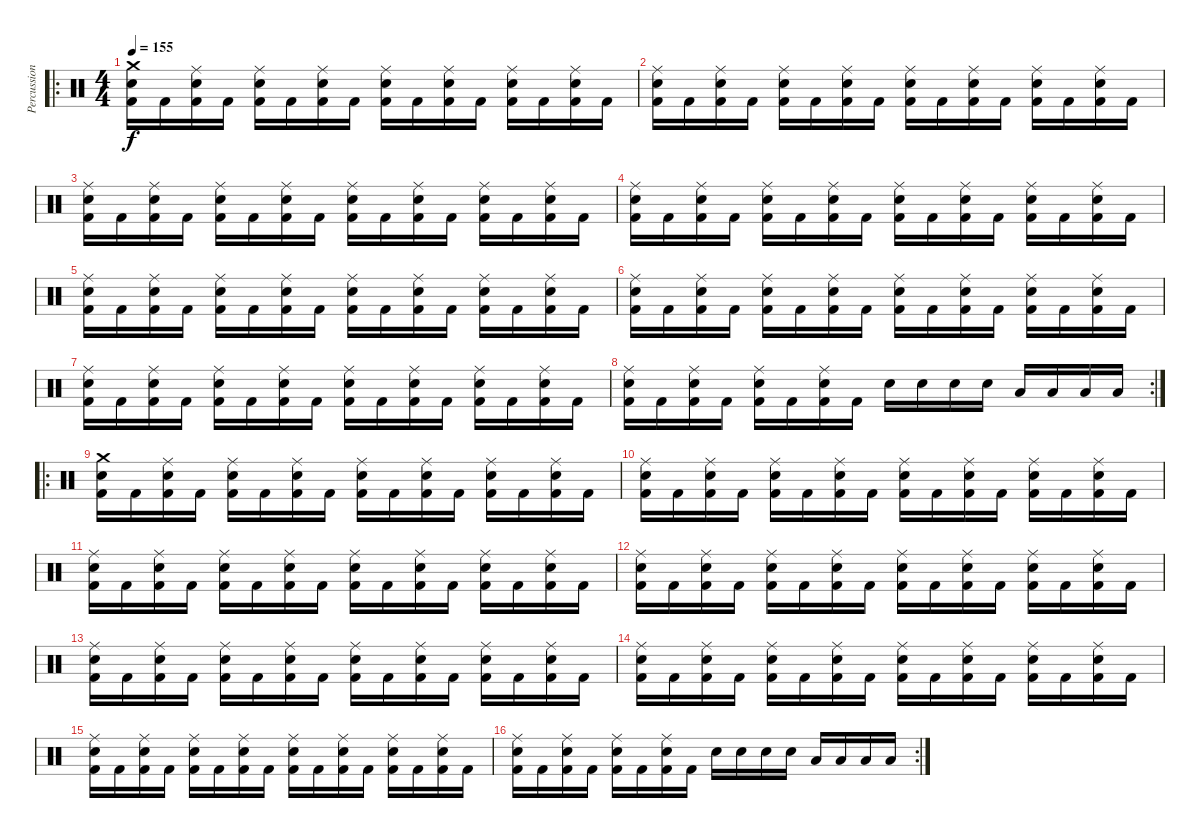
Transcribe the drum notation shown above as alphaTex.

\track ("Percussions" "Percussion") {instrument percussion}
\staff {score}
\articulation defaults
\ro
\ts (4 4)
\tempo 155
\clef neutral
\ks c
("Crash medium (hit)" "Snare (hit) 2" "Kick (hit) 2").16{dy f} "Kick (hit) 2".16 ("Ride (middle)" "Snare (hit) 2" "Kick (hit) 2").16 "Kick (hit) 2".16 ("Ride (middle)" "Snare (hit) 2" "Kick (hit) 2").16 "Kick (hit) 2".16 ("Ride (middle)" "Snare (hit) 2" "Kick (hit) 2").16 "Kick (hit) 2".16 ("Ride (middle)" "Snare (hit) 2" "Kick (hit) 2").16 "Kick (hit) 2".16 ("Ride (middle)" "Snare (hit) 2" "Kick (hit) 2").16 "Kick (hit) 2".16 ("Ride (middle)" "Snare (hit) 2" "Kick (hit) 2").16 "Kick (hit) 2".16 ("Ride (middle)" "Snare (hit) 2" "Kick (hit) 2").16 "Kick (hit) 2".16 |
("Ride (middle)" "Snare (hit) 2" "Kick (hit) 2").16 "Kick (hit) 2".16 ("Ride (middle)" "Snare (hit) 2" "Kick (hit) 2").16 "Kick (hit) 2".16 ("Ride (middle)" "Snare (hit) 2" "Kick (hit) 2").16 "Kick (hit) 2".16 ("Ride (middle)" "Snare (hit) 2" "Kick (hit) 2").16 "Kick (hit) 2".16 ("Ride (middle)" "Snare (hit) 2" "Kick (hit) 2").16 "Kick (hit) 2".16 ("Ride (middle)" "Snare (hit) 2" "Kick (hit) 2").16 "Kick (hit) 2".16 ("Ride (middle)" "Snare (hit) 2" "Kick (hit) 2").16 "Kick (hit) 2".16 ("Ride (middle)" "Snare (hit) 2" "Kick (hit) 2").16 "Kick (hit) 2".16 |
("Ride (middle)" "Snare (hit) 2" "Kick (hit) 2").16 "Kick (hit) 2".16 ("Ride (middle)" "Snare (hit) 2" "Kick (hit) 2").16 "Kick (hit) 2".16 ("Ride (middle)" "Snare (hit) 2" "Kick (hit) 2").16 "Kick (hit) 2".16 ("Ride (middle)" "Snare (hit) 2" "Kick (hit) 2").16 "Kick (hit) 2".16 ("Ride (middle)" "Snare (hit) 2" "Kick (hit) 2").16 "Kick (hit) 2".16 ("Ride (middle)" "Snare (hit) 2" "Kick (hit) 2").16 "Kick (hit) 2".16 ("Ride (middle)" "Snare (hit) 2" "Kick (hit) 2").16 "Kick (hit) 2".16 ("Ride (middle)" "Snare (hit) 2" "Kick (hit) 2").16 "Kick (hit) 2".16 |
("Ride (middle)" "Snare (hit) 2" "Kick (hit) 2").16 "Kick (hit) 2".16 ("Ride (middle)" "Snare (hit) 2" "Kick (hit) 2").16 "Kick (hit) 2".16 ("Ride (middle)" "Snare (hit) 2" "Kick (hit) 2").16 "Kick (hit) 2".16 ("Ride (middle)" "Snare (hit) 2" "Kick (hit) 2").16 "Kick (hit) 2".16 ("Ride (middle)" "Snare (hit) 2" "Kick (hit) 2").16 "Kick (hit) 2".16 ("Ride (middle)" "Snare (hit) 2" "Kick (hit) 2").16 "Kick (hit) 2".16 ("Ride (middle)" "Snare (hit) 2" "Kick (hit) 2").16 "Kick (hit) 2".16 ("Ride (middle)" "Snare (hit) 2" "Kick (hit) 2").16 "Kick (hit) 2".16 |
("Ride (middle)" "Snare (hit) 2" "Kick (hit) 2").16 "Kick (hit) 2".16 ("Ride (middle)" "Snare (hit) 2" "Kick (hit) 2").16 "Kick (hit) 2".16 ("Ride (middle)" "Snare (hit) 2" "Kick (hit) 2").16 "Kick (hit) 2".16 ("Ride (middle)" "Snare (hit) 2" "Kick (hit) 2").16 "Kick (hit) 2".16 ("Ride (middle)" "Snare (hit) 2" "Kick (hit) 2").16 "Kick (hit) 2".16 ("Ride (middle)" "Snare (hit) 2" "Kick (hit) 2").16 "Kick (hit) 2".16 ("Ride (middle)" "Snare (hit) 2" "Kick (hit) 2").16 "Kick (hit) 2".16 ("Ride (middle)" "Snare (hit) 2" "Kick (hit) 2").16 "Kick (hit) 2".16 |
("Ride (middle)" "Snare (hit) 2" "Kick (hit) 2").16 "Kick (hit) 2".16 ("Ride (middle)" "Snare (hit) 2" "Kick (hit) 2").16 "Kick (hit) 2".16 ("Ride (middle)" "Snare (hit) 2" "Kick (hit) 2").16 "Kick (hit) 2".16 ("Ride (middle)" "Snare (hit) 2" "Kick (hit) 2").16 "Kick (hit) 2".16 ("Ride (middle)" "Snare (hit) 2" "Kick (hit) 2").16 "Kick (hit) 2".16 ("Ride (middle)" "Snare (hit) 2" "Kick (hit) 2").16 "Kick (hit) 2".16 ("Ride (middle)" "Snare (hit) 2" "Kick (hit) 2").16 "Kick (hit) 2".16 ("Ride (middle)" "Snare (hit) 2" "Kick (hit) 2").16 "Kick (hit) 2".16 |
("Ride (middle)" "Snare (hit) 2" "Kick (hit) 2").16 "Kick (hit) 2".16 ("Ride (middle)" "Snare (hit) 2" "Kick (hit) 2").16 "Kick (hit) 2".16 ("Ride (middle)" "Snare (hit) 2" "Kick (hit) 2").16 "Kick (hit) 2".16 ("Ride (middle)" "Snare (hit) 2" "Kick (hit) 2").16 "Kick (hit) 2".16 ("Ride (middle)" "Snare (hit) 2" "Kick (hit) 2").16 "Kick (hit) 2".16 ("Ride (middle)" "Snare (hit) 2" "Kick (hit) 2").16 "Kick (hit) 2".16 ("Ride (middle)" "Snare (hit) 2" "Kick (hit) 2").16 "Kick (hit) 2".16 ("Ride (middle)" "Snare (hit) 2" "Kick (hit) 2").16 "Kick (hit) 2".16 |
\rc 2
("Ride (middle)" "Snare (hit) 2" "Kick (hit) 2").16 "Kick (hit) 2".16 ("Ride (middle)" "Snare (hit) 2" "Kick (hit) 2").16 "Kick (hit) 2".16 ("Ride (middle)" "Snare (hit) 2" "Kick (hit) 2").16 "Kick (hit) 2".16 ("Ride (middle)" "Snare (hit) 2" "Kick (hit) 2").16 "Kick (hit) 2".16 "Snare (hit) 2".16 "Snare (hit) 2".16 "Snare (hit) 2".16 "Snare (hit) 2".16 "Low Tom (hit)".16 "Low Tom (hit)".16 "Low Tom (hit)".16 "Low Tom (hit)".16 |
\ro
("Crash medium (hit)" "Snare (hit) 2" "Kick (hit) 2").16 "Kick (hit) 2".16 ("Ride (middle)" "Snare (hit) 2" "Kick (hit) 2").16 "Kick (hit) 2".16 ("Ride (middle)" "Snare (hit) 2" "Kick (hit) 2").16 "Kick (hit) 2".16 ("Ride (middle)" "Snare (hit) 2" "Kick (hit) 2").16 "Kick (hit) 2".16 ("Ride (middle)" "Snare (hit) 2" "Kick (hit) 2").16 "Kick (hit) 2".16 ("Ride (middle)" "Snare (hit) 2" "Kick (hit) 2").16 "Kick (hit) 2".16 ("Ride (middle)" "Snare (hit) 2" "Kick (hit) 2").16 "Kick (hit) 2".16 ("Ride (middle)" "Snare (hit) 2" "Kick (hit) 2").16 "Kick (hit) 2".16 |
("Ride (middle)" "Snare (hit) 2" "Kick (hit) 2").16 "Kick (hit) 2".16 ("Ride (middle)" "Snare (hit) 2" "Kick (hit) 2").16 "Kick (hit) 2".16 ("Ride (middle)" "Snare (hit) 2" "Kick (hit) 2").16 "Kick (hit) 2".16 ("Ride (middle)" "Snare (hit) 2" "Kick (hit) 2").16 "Kick (hit) 2".16 ("Ride (middle)" "Snare (hit) 2" "Kick (hit) 2").16 "Kick (hit) 2".16 ("Ride (middle)" "Snare (hit) 2" "Kick (hit) 2").16 "Kick (hit) 2".16 ("Ride (middle)" "Snare (hit) 2" "Kick (hit) 2").16 "Kick (hit) 2".16 ("Ride (middle)" "Snare (hit) 2" "Kick (hit) 2").16 "Kick (hit) 2".16 |
("Ride (middle)" "Snare (hit) 2" "Kick (hit) 2").16 "Kick (hit) 2".16 ("Ride (middle)" "Snare (hit) 2" "Kick (hit) 2").16 "Kick (hit) 2".16 ("Ride (middle)" "Snare (hit) 2" "Kick (hit) 2").16 "Kick (hit) 2".16 ("Ride (middle)" "Snare (hit) 2" "Kick (hit) 2").16 "Kick (hit) 2".16 ("Ride (middle)" "Snare (hit) 2" "Kick (hit) 2").16 "Kick (hit) 2".16 ("Ride (middle)" "Snare (hit) 2" "Kick (hit) 2").16 "Kick (hit) 2".16 ("Ride (middle)" "Snare (hit) 2" "Kick (hit) 2").16 "Kick (hit) 2".16 ("Ride (middle)" "Snare (hit) 2" "Kick (hit) 2").16 "Kick (hit) 2".16 |
("Ride (middle)" "Snare (hit) 2" "Kick (hit) 2").16 "Kick (hit) 2".16 ("Ride (middle)" "Snare (hit) 2" "Kick (hit) 2").16 "Kick (hit) 2".16 ("Ride (middle)" "Snare (hit) 2" "Kick (hit) 2").16 "Kick (hit) 2".16 ("Ride (middle)" "Snare (hit) 2" "Kick (hit) 2").16 "Kick (hit) 2".16 ("Ride (middle)" "Snare (hit) 2" "Kick (hit) 2").16 "Kick (hit) 2".16 ("Ride (middle)" "Snare (hit) 2" "Kick (hit) 2").16 "Kick (hit) 2".16 ("Ride (middle)" "Snare (hit) 2" "Kick (hit) 2").16 "Kick (hit) 2".16 ("Ride (middle)" "Snare (hit) 2" "Kick (hit) 2").16 "Kick (hit) 2".16 |
("Ride (middle)" "Snare (hit) 2" "Kick (hit) 2").16 "Kick (hit) 2".16 ("Ride (middle)" "Snare (hit) 2" "Kick (hit) 2").16 "Kick (hit) 2".16 ("Ride (middle)" "Snare (hit) 2" "Kick (hit) 2").16 "Kick (hit) 2".16 ("Ride (middle)" "Snare (hit) 2" "Kick (hit) 2").16 "Kick (hit) 2".16 ("Ride (middle)" "Snare (hit) 2" "Kick (hit) 2").16 "Kick (hit) 2".16 ("Ride (middle)" "Snare (hit) 2" "Kick (hit) 2").16 "Kick (hit) 2".16 ("Ride (middle)" "Snare (hit) 2" "Kick (hit) 2").16 "Kick (hit) 2".16 ("Ride (middle)" "Snare (hit) 2" "Kick (hit) 2").16 "Kick (hit) 2".16 |
("Ride (middle)" "Snare (hit) 2" "Kick (hit) 2").16 "Kick (hit) 2".16 ("Ride (middle)" "Snare (hit) 2" "Kick (hit) 2").16 "Kick (hit) 2".16 ("Ride (middle)" "Snare (hit) 2" "Kick (hit) 2").16 "Kick (hit) 2".16 ("Ride (middle)" "Snare (hit) 2" "Kick (hit) 2").16 "Kick (hit) 2".16 ("Ride (middle)" "Snare (hit) 2" "Kick (hit) 2").16 "Kick (hit) 2".16 ("Ride (middle)" "Snare (hit) 2" "Kick (hit) 2").16 "Kick (hit) 2".16 ("Ride (middle)" "Snare (hit) 2" "Kick (hit) 2").16 "Kick (hit) 2".16 ("Ride (middle)" "Snare (hit) 2" "Kick (hit) 2").16 "Kick (hit) 2".16 |
("Ride (middle)" "Snare (hit) 2" "Kick (hit) 2").16 "Kick (hit) 2".16 ("Ride (middle)" "Snare (hit) 2" "Kick (hit) 2").16 "Kick (hit) 2".16 ("Ride (middle)" "Snare (hit) 2" "Kick (hit) 2").16 "Kick (hit) 2".16 ("Ride (middle)" "Snare (hit) 2" "Kick (hit) 2").16 "Kick (hit) 2".16 ("Ride (middle)" "Snare (hit) 2" "Kick (hit) 2").16 "Kick (hit) 2".16 ("Ride (middle)" "Snare (hit) 2" "Kick (hit) 2").16 "Kick (hit) 2".16 ("Ride (middle)" "Snare (hit) 2" "Kick (hit) 2").16 "Kick (hit) 2".16 ("Ride (middle)" "Snare (hit) 2" "Kick (hit) 2").16 "Kick (hit) 2".16 |
\rc 2
("Ride (middle)" "Snare (hit) 2" "Kick (hit) 2").16 "Kick (hit) 2".16 ("Ride (middle)" "Snare (hit) 2" "Kick (hit) 2").16 "Kick (hit) 2".16 ("Ride (middle)" "Snare (hit) 2" "Kick (hit) 2").16 "Kick (hit) 2".16 ("Ride (middle)" "Snare (hit) 2" "Kick (hit) 2").16 "Kick (hit) 2".16 "Snare (hit) 2".16 "Snare (hit) 2".16 "Snare (hit) 2".16 "Snare (hit) 2".16 "Low Tom (hit)".16 "Low Tom (hit)".16 "Low Tom (hit)".16 "Low Tom (hit)".16
